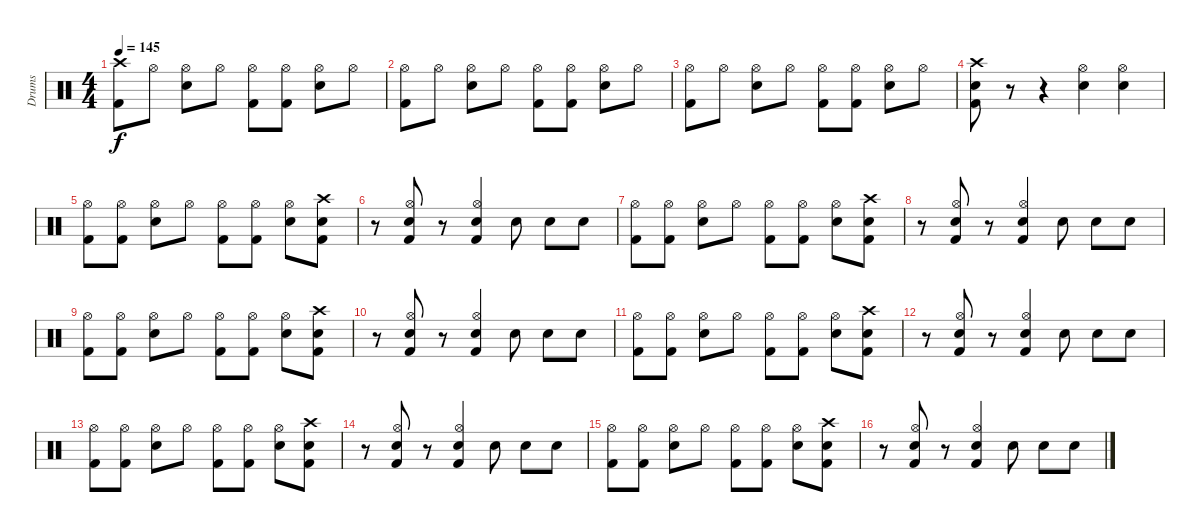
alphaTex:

\track ("Drums" "Drums") {instrument percussion}
\staff {score}
\articulation defaults
\ts (4 4)
\tempo 145
\clef neutral
\ks c
("Crash high (hit)" "Kick (hit) 2").8{dy f} "Hi-Hat (open)".8 ("Hi-Hat (open)" "Electric Snare (hit)").8 "Hi-Hat (open)".8 ("Hi-Hat (open)" "Kick (hit) 2").8 ("Hi-Hat (open)" "Kick (hit) 2").8 ("Hi-Hat (open)" "Electric Snare (hit)").8 "Hi-Hat (open)".8 |
("Hi-Hat (open)" "Kick (hit) 2").8 "Hi-Hat (open)".8 ("Hi-Hat (open)" "Electric Snare (hit)").8 "Hi-Hat (open)".8 ("Hi-Hat (open)" "Kick (hit) 2").8 ("Hi-Hat (open)" "Kick (hit) 2").8 ("Hi-Hat (open)" "Electric Snare (hit)").8 "Hi-Hat (open)".8 |
("Hi-Hat (open)" "Kick (hit) 2").8 "Hi-Hat (open)".8 ("Hi-Hat (open)" "Electric Snare (hit)").8 "Hi-Hat (open)".8 ("Hi-Hat (open)" "Kick (hit) 2").8 ("Hi-Hat (open)" "Kick (hit) 2").8 ("Hi-Hat (open)" "Electric Snare (hit)").8 "Hi-Hat (open)".8 |
("Crash high (hit)" "Electric Snare (hit)" "Kick (hit) 2").8 r.8 r.4 ("Hi-Hat (open)" "Electric Snare (hit)").4 ("Hi-Hat (open)" "Electric Snare (hit)").4 |
("Hi-Hat (open)" "Kick (hit) 2").8 ("Hi-Hat (open)" "Kick (hit) 2").8 ("Hi-Hat (open)" "Electric Snare (hit)").8 "Hi-Hat (open)".8 ("Hi-Hat (open)" "Kick (hit) 2").8 ("Hi-Hat (open)" "Kick (hit) 2").8 ("Hi-Hat (open)" "Electric Snare (hit)").8 ("Crash high (hit)" "Electric Snare (hit)" "Kick (hit) 2").8 |
r.8 ("Hi-Hat (open)" "Electric Snare (hit)" "Kick (hit) 2").8 r.8 ("Hi-Hat (open)" "Electric Snare (hit)" "Kick (hit) 2").4 "Electric Snare (hit)".8 "Electric Snare (hit)".8 "Electric Snare (hit)".8 |
("Hi-Hat (open)" "Kick (hit) 2").8 ("Hi-Hat (open)" "Kick (hit) 2").8 ("Hi-Hat (open)" "Electric Snare (hit)").8 "Hi-Hat (open)".8 ("Hi-Hat (open)" "Kick (hit) 2").8 ("Hi-Hat (open)" "Kick (hit) 2").8 ("Hi-Hat (open)" "Electric Snare (hit)").8 ("Crash high (hit)" "Electric Snare (hit)" "Kick (hit) 2").8 |
r.8 ("Hi-Hat (open)" "Electric Snare (hit)" "Kick (hit) 2").8 r.8 ("Hi-Hat (open)" "Electric Snare (hit)" "Kick (hit) 2").4 "Electric Snare (hit)".8 "Electric Snare (hit)".8 "Electric Snare (hit)".8 |
("Hi-Hat (open)" "Kick (hit) 2").8 ("Hi-Hat (open)" "Kick (hit) 2").8 ("Hi-Hat (open)" "Electric Snare (hit)").8 "Hi-Hat (open)".8 ("Hi-Hat (open)" "Kick (hit) 2").8 ("Hi-Hat (open)" "Kick (hit) 2").8 ("Hi-Hat (open)" "Electric Snare (hit)").8 ("Crash high (hit)" "Electric Snare (hit)" "Kick (hit) 2").8 |
r.8 ("Hi-Hat (open)" "Electric Snare (hit)" "Kick (hit) 2").8 r.8 ("Hi-Hat (open)" "Electric Snare (hit)" "Kick (hit) 2").4 "Electric Snare (hit)".8 "Electric Snare (hit)".8 "Electric Snare (hit)".8 |
("Hi-Hat (open)" "Kick (hit) 2").8 ("Hi-Hat (open)" "Kick (hit) 2").8 ("Hi-Hat (open)" "Electric Snare (hit)").8 "Hi-Hat (open)".8 ("Hi-Hat (open)" "Kick (hit) 2").8 ("Hi-Hat (open)" "Kick (hit) 2").8 ("Hi-Hat (open)" "Electric Snare (hit)").8 ("Crash high (hit)" "Electric Snare (hit)" "Kick (hit) 2").8 |
r.8 ("Hi-Hat (open)" "Electric Snare (hit)" "Kick (hit) 2").8 r.8 ("Hi-Hat (open)" "Electric Snare (hit)" "Kick (hit) 2").4 "Electric Snare (hit)".8 "Electric Snare (hit)".8 "Electric Snare (hit)".8 |
("Hi-Hat (open)" "Kick (hit) 2").8 ("Hi-Hat (open)" "Kick (hit) 2").8 ("Hi-Hat (open)" "Electric Snare (hit)").8 "Hi-Hat (open)".8 ("Hi-Hat (open)" "Kick (hit) 2").8 ("Hi-Hat (open)" "Kick (hit) 2").8 ("Hi-Hat (open)" "Electric Snare (hit)").8 ("Crash high (hit)" "Electric Snare (hit)" "Kick (hit) 2").8 |
r.8 ("Hi-Hat (open)" "Electric Snare (hit)" "Kick (hit) 2").8 r.8 ("Hi-Hat (open)" "Electric Snare (hit)" "Kick (hit) 2").4 "Electric Snare (hit)".8 "Electric Snare (hit)".8 "Electric Snare (hit)".8 |
("Hi-Hat (open)" "Kick (hit) 2").8 ("Hi-Hat (open)" "Kick (hit) 2").8 ("Hi-Hat (open)" "Electric Snare (hit)").8 "Hi-Hat (open)".8 ("Hi-Hat (open)" "Kick (hit) 2").8 ("Hi-Hat (open)" "Kick (hit) 2").8 ("Hi-Hat (open)" "Electric Snare (hit)").8 ("Crash high (hit)" "Electric Snare (hit)" "Kick (hit) 2").8 |
r.8 ("Hi-Hat (open)" "Electric Snare (hit)" "Kick (hit) 2").8 r.8 ("Hi-Hat (open)" "Electric Snare (hit)" "Kick (hit) 2").4 "Electric Snare (hit)".8 "Electric Snare (hit)".8 "Electric Snare (hit)".8
